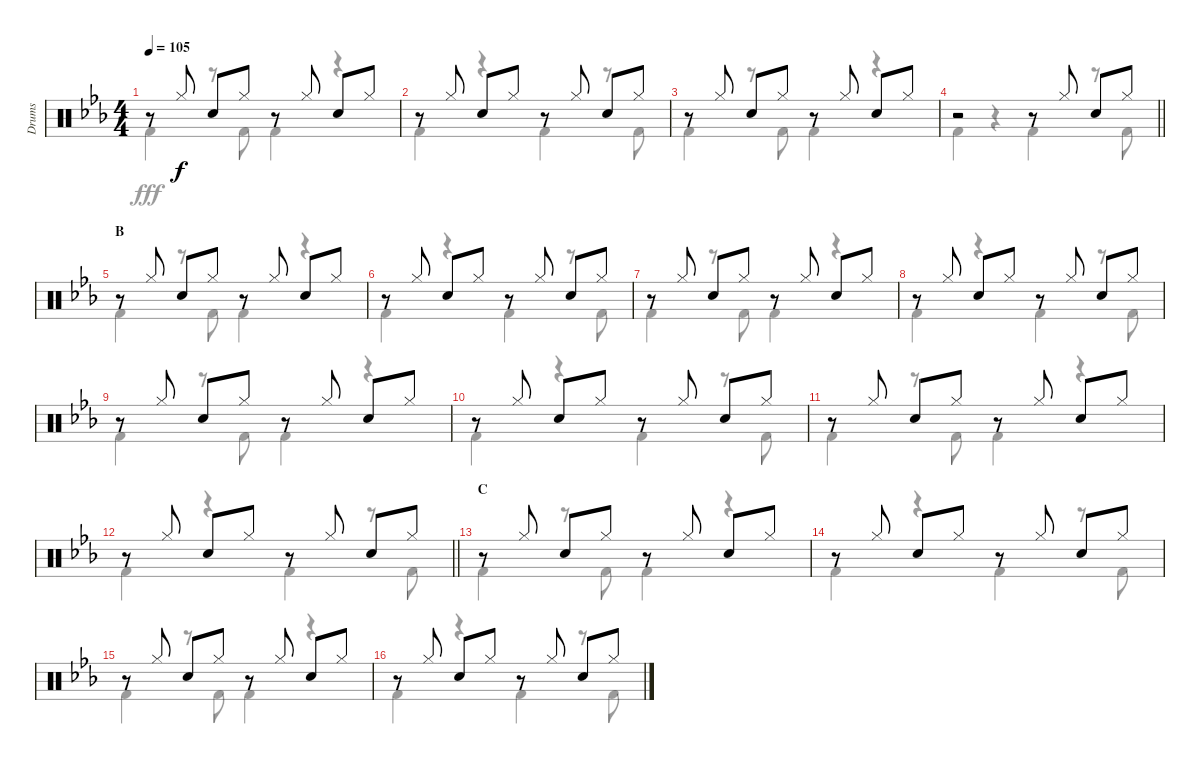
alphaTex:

\track ("Drums" "Drums") {instrument percussion}
\staff {score}
\articulation defaults
\voice
\ts (4 4)
\tempo 105
\clef neutral
\ks eb
r.8{dy f} "Hi-Hat (closed)".8 "Snare (hit) 2".8 "Hi-Hat (closed)".8 r.8 "Hi-Hat (closed)".8 "Snare (hit) 2".8 "Hi-Hat (closed)".8 |
r.8 "Hi-Hat (closed)".8 "Snare (hit) 2".8 "Hi-Hat (closed)".8 r.8 "Hi-Hat (closed)".8 "Snare (hit) 2".8 "Hi-Hat (closed)".8 |
r.8 "Hi-Hat (closed)".8 "Snare (hit) 2".8 "Hi-Hat (closed)".8 r.8 "Hi-Hat (closed)".8 "Snare (hit) 2".8 "Hi-Hat (closed)".8 |
\barLineRight lightlight
r.2 r.8 "Hi-Hat (closed)".8 "Snare (hit) 2".8 "Hi-Hat (closed)".8 |
\section ("" "B")
r.8 "Hi-Hat (closed)".8 "Snare (hit) 2".8 "Hi-Hat (closed)".8 r.8 "Hi-Hat (closed)".8 "Snare (hit) 2".8 "Hi-Hat (closed)".8 |
r.8 "Hi-Hat (closed)".8 "Snare (hit) 2".8 "Hi-Hat (closed)".8 r.8 "Hi-Hat (closed)".8 "Snare (hit) 2".8 "Hi-Hat (closed)".8 |
r.8 "Hi-Hat (closed)".8 "Snare (hit) 2".8 "Hi-Hat (closed)".8 r.8 "Hi-Hat (closed)".8 "Snare (hit) 2".8 "Hi-Hat (closed)".8 |
r.8 "Hi-Hat (closed)".8 "Snare (hit) 2".8 "Hi-Hat (closed)".8 r.8 "Hi-Hat (closed)".8 "Snare (hit) 2".8 "Hi-Hat (closed)".8 |
r.8 "Hi-Hat (closed)".8 "Snare (hit) 2".8 "Hi-Hat (closed)".8 r.8 "Hi-Hat (closed)".8 "Snare (hit) 2".8 "Hi-Hat (closed)".8 |
r.8 "Hi-Hat (closed)".8 "Snare (hit) 2".8 "Hi-Hat (closed)".8 r.8 "Hi-Hat (closed)".8 "Snare (hit) 2".8 "Hi-Hat (closed)".8 |
r.8 "Hi-Hat (closed)".8 "Snare (hit) 2".8 "Hi-Hat (closed)".8 r.8 "Hi-Hat (closed)".8 "Snare (hit) 2".8 "Hi-Hat (closed)".8 |
\barLineRight lightlight
r.8 "Hi-Hat (closed)".8 "Snare (hit) 2".8 "Hi-Hat (closed)".8 r.8 "Hi-Hat (closed)".8 "Snare (hit) 2".8 "Hi-Hat (closed)".8 |
\section ("" "C")
r.8 "Hi-Hat (closed)".8 "Snare (hit) 2".8 "Hi-Hat (closed)".8 r.8 "Hi-Hat (closed)".8 "Snare (hit) 2".8 "Hi-Hat (closed)".8 |
r.8 "Hi-Hat (closed)".8 "Snare (hit) 2".8 "Hi-Hat (closed)".8 r.8 "Hi-Hat (closed)".8 "Snare (hit) 2".8 "Hi-Hat (closed)".8 |
r.8 "Hi-Hat (closed)".8 "Snare (hit) 2".8 "Hi-Hat (closed)".8 r.8 "Hi-Hat (closed)".8 "Snare (hit) 2".8 "Hi-Hat (closed)".8 |
r.8 "Hi-Hat (closed)".8 "Snare (hit) 2".8 "Hi-Hat (closed)".8 r.8 "Hi-Hat (closed)".8 "Snare (hit) 2".8 "Hi-Hat (closed)".8
\voice
\clef neutral
\ottava regular
\simile none
\ks eb "Kick (hit) 2".4{dy fff}
r.8 "Kick (hit) 2".8 "Kick (hit) 2".4 r.4 |
"Kick (hit) 2".4 r.4 "Kick (hit) 2".4 r.8 "Kick (hit) 2".8 |
"Kick (hit) 2".4 r.8 "Kick (hit) 2".8 "Kick (hit) 2".4 r.4 |
\barLineRight lightlight "Kick (hit) 2".4
r.4 "Kick (hit) 2".4 r.8 "Kick (hit) 2".8 |
"Kick (hit) 2".4 r.8 "Kick (hit) 2".8 "Kick (hit) 2".4 r.4 |
"Kick (hit) 2".4 r.4 "Kick (hit) 2".4 r.8 "Kick (hit) 2".8 |
"Kick (hit) 2".4 r.8 "Kick (hit) 2".8 "Kick (hit) 2".4 r.4 |
"Kick (hit) 2".4 r.4 "Kick (hit) 2".4 r.8 "Kick (hit) 2".8 |
"Kick (hit) 2".4 r.8 "Kick (hit) 2".8 "Kick (hit) 2".4 r.4 |
"Kick (hit) 2".4 r.4 "Kick (hit) 2".4 r.8 "Kick (hit) 2".8 |
"Kick (hit) 2".4 r.8 "Kick (hit) 2".8 "Kick (hit) 2".4 r.4 |
\barLineRight lightlight "Kick (hit) 2".4
r.4 "Kick (hit) 2".4 r.8 "Kick (hit) 2".8 |
"Kick (hit) 2".4 r.8 "Kick (hit) 2".8 "Kick (hit) 2".4 r.4 |
"Kick (hit) 2".4 r.4 "Kick (hit) 2".4 r.8 "Kick (hit) 2".8 |
"Kick (hit) 2".4 r.8 "Kick (hit) 2".8 "Kick (hit) 2".4 r.4 |
"Kick (hit) 2".4 r.4 "Kick (hit) 2".4 r.8 "Kick (hit) 2".8
